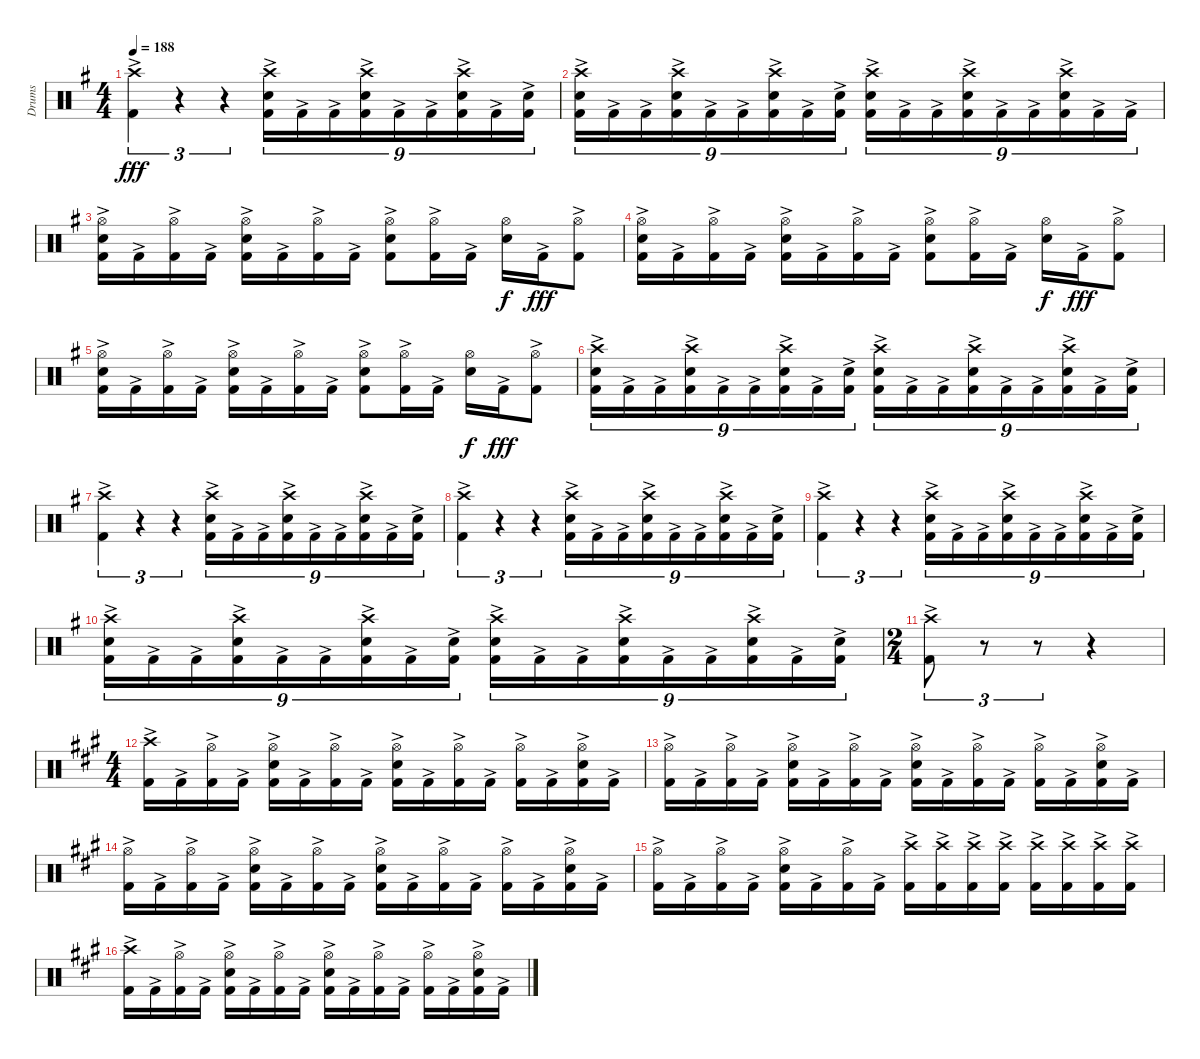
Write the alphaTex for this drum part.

\track ("Drums" "Drums") {instrument percussion}
\staff {score}
\articulation defaults
\ts (4 4)
\tempo 188
\clef neutral
\ks eminor
("Crash high (hit)" "Kick (hit) 2"{ac}).4{tu (3 2) dy fff} r.4{tu (3 2)} r.4{tu (3 2)} ("Crash high (hit)" "Snare (hit) 2" "Kick (hit) 2"{ac}).16{tu (9 8)} "Kick (hit) 2"{ac}.16{tu (9 8)} "Kick (hit) 2"{ac}.16{tu (9 8)} ("Crash high (hit)" "Snare (hit) 2" "Kick (hit) 2"{ac}).16{tu (9 8)} "Kick (hit) 2"{ac}.16{tu (9 8)} "Kick (hit) 2"{ac}.16{tu (9 8)} ("Crash high (hit)" "Snare (hit) 2" "Kick (hit) 2"{ac}).16{tu (9 8)} "Kick (hit) 2"{ac}.16{tu (9 8)} ("Snare (hit) 2" "Kick (hit) 2"{ac}).16{tu (9 8)} |
("Crash high (hit)" "Snare (hit) 2" "Kick (hit) 2"{ac}).16{tu (9 8)} "Kick (hit) 2"{ac}.16{tu (9 8)} "Kick (hit) 2"{ac}.16{tu (9 8)} ("Crash high (hit)" "Snare (hit) 2" "Kick (hit) 2"{ac}).16{tu (9 8)} "Kick (hit) 2"{ac}.16{tu (9 8)} "Kick (hit) 2"{ac}.16{tu (9 8)} ("Crash high (hit)" "Snare (hit) 2" "Kick (hit) 2"{ac}).16{tu (9 8)} "Kick (hit) 2"{ac}.16{tu (9 8)} ("Snare (hit) 2" "Kick (hit) 2"{ac}).16{tu (9 8)} ("Crash high (hit)" "Snare (hit) 2" "Kick (hit) 2"{ac}).16{tu (9 8)} "Kick (hit) 2"{ac}.16{tu (9 8)} "Kick (hit) 2"{ac}.16{tu (9 8)} ("Crash high (hit)" "Snare (hit) 2" "Kick (hit) 2"{ac}).16{tu (9 8)} "Kick (hit) 2"{ac}.16{tu (9 8)} "Kick (hit) 2"{ac}.16{tu (9 8)} ("Crash high (hit)" "Snare (hit) 2" "Kick (hit) 2"{ac}).16{tu (9 8)} "Kick (hit) 2"{ac}.16{tu (9 8)} "Kick (hit) 2"{ac}.16{tu (9 8)} |
("Hi-Hat (open)" "Snare (hit) 2" "Kick (hit) 2"{ac}).16 "Kick (hit) 2"{ac}.16 ("Hi-Hat (open)" "Kick (hit) 2"{ac}).16 "Kick (hit) 2"{ac}.16 ("Hi-Hat (open)" "Snare (hit) 2" "Kick (hit) 2"{ac}).16 "Kick (hit) 2"{ac}.16 ("Hi-Hat (open)" "Kick (hit) 2"{ac}).16 "Kick (hit) 2"{ac}.16 ("Hi-Hat (open)" "Snare (hit) 2" "Kick (hit) 2"{ac}).8 ("Hi-Hat (open)" "Kick (hit) 2"{ac}).16 "Kick (hit) 2"{ac}.16 ("Hi-Hat (open)" "Snare (hit) 2").16{dy f} "Kick (hit) 2"{ac}.16{dy fff} ("Hi-Hat (open)" "Kick (hit) 2"{ac}).8 |
("Hi-Hat (open)" "Snare (hit) 2" "Kick (hit) 2"{ac}).16 "Kick (hit) 2"{ac}.16 ("Hi-Hat (open)" "Kick (hit) 2"{ac}).16 "Kick (hit) 2"{ac}.16 ("Hi-Hat (open)" "Snare (hit) 2" "Kick (hit) 2"{ac}).16 "Kick (hit) 2"{ac}.16 ("Hi-Hat (open)" "Kick (hit) 2"{ac}).16 "Kick (hit) 2"{ac}.16 ("Hi-Hat (open)" "Snare (hit) 2" "Kick (hit) 2"{ac}).8 ("Hi-Hat (open)" "Kick (hit) 2"{ac}).16 "Kick (hit) 2"{ac}.16 ("Hi-Hat (open)" "Snare (hit) 2").16{dy f} "Kick (hit) 2"{ac}.16{dy fff} ("Hi-Hat (open)" "Kick (hit) 2"{ac}).8 |
("Hi-Hat (open)" "Snare (hit) 2" "Kick (hit) 2"{ac}).16 "Kick (hit) 2"{ac}.16 ("Hi-Hat (open)" "Kick (hit) 2"{ac}).16 "Kick (hit) 2"{ac}.16 ("Hi-Hat (open)" "Snare (hit) 2" "Kick (hit) 2"{ac}).16 "Kick (hit) 2"{ac}.16 ("Hi-Hat (open)" "Kick (hit) 2"{ac}).16 "Kick (hit) 2"{ac}.16 ("Hi-Hat (open)" "Snare (hit) 2" "Kick (hit) 2"{ac}).8 ("Hi-Hat (open)" "Kick (hit) 2"{ac}).16 "Kick (hit) 2"{ac}.16 ("Hi-Hat (open)" "Snare (hit) 2").16{dy f} "Kick (hit) 2"{ac}.16{dy fff} ("Hi-Hat (open)" "Kick (hit) 2"{ac}).8 |
("Crash high (hit)" "Snare (hit) 2" "Kick (hit) 2"{ac}).16{tu (9 8)} "Kick (hit) 2"{ac}.16{tu (9 8)} "Kick (hit) 2"{ac}.16{tu (9 8)} ("Crash high (hit)" "Snare (hit) 2" "Kick (hit) 2"{ac}).16{tu (9 8)} "Kick (hit) 2"{ac}.16{tu (9 8)} "Kick (hit) 2"{ac}.16{tu (9 8)} ("Crash high (hit)" "Snare (hit) 2" "Kick (hit) 2"{ac}).16{tu (9 8)} "Kick (hit) 2"{ac}.16{tu (9 8)} ("Snare (hit) 2" "Kick (hit) 2"{ac}).16{tu (9 8)} ("Crash high (hit)" "Snare (hit) 2" "Kick (hit) 2"{ac}).16{tu (9 8)} "Kick (hit) 2"{ac}.16{tu (9 8)} "Kick (hit) 2"{ac}.16{tu (9 8)} ("Crash high (hit)" "Snare (hit) 2" "Kick (hit) 2"{ac}).16{tu (9 8)} "Kick (hit) 2"{ac}.16{tu (9 8)} "Kick (hit) 2"{ac}.16{tu (9 8)} ("Crash high (hit)" "Snare (hit) 2" "Kick (hit) 2"{ac}).16{tu (9 8)} "Kick (hit) 2"{ac}.16{tu (9 8)} ("Snare (hit) 2" "Kick (hit) 2"{ac}).16{tu (9 8)} |
("Crash high (hit)" "Kick (hit) 2"{ac}).4{tu (3 2)} r.4{tu (3 2)} r.4{tu (3 2)} ("Crash high (hit)" "Snare (hit) 2" "Kick (hit) 2"{ac}).16{tu (9 8)} "Kick (hit) 2"{ac}.16{tu (9 8)} "Kick (hit) 2"{ac}.16{tu (9 8)} ("Crash high (hit)" "Snare (hit) 2" "Kick (hit) 2"{ac}).16{tu (9 8)} "Kick (hit) 2"{ac}.16{tu (9 8)} "Kick (hit) 2"{ac}.16{tu (9 8)} ("Crash high (hit)" "Snare (hit) 2" "Kick (hit) 2"{ac}).16{tu (9 8)} "Kick (hit) 2"{ac}.16{tu (9 8)} ("Snare (hit) 2" "Kick (hit) 2"{ac}).16{tu (9 8)} |
("Crash high (hit)" "Kick (hit) 2"{ac}).4{tu (3 2)} r.4{tu (3 2)} r.4{tu (3 2)} ("Crash high (hit)" "Snare (hit) 2" "Kick (hit) 2"{ac}).16{tu (9 8)} "Kick (hit) 2"{ac}.16{tu (9 8)} "Kick (hit) 2"{ac}.16{tu (9 8)} ("Crash high (hit)" "Snare (hit) 2" "Kick (hit) 2"{ac}).16{tu (9 8)} "Kick (hit) 2"{ac}.16{tu (9 8)} "Kick (hit) 2"{ac}.16{tu (9 8)} ("Crash high (hit)" "Snare (hit) 2" "Kick (hit) 2"{ac}).16{tu (9 8)} "Kick (hit) 2"{ac}.16{tu (9 8)} ("Snare (hit) 2" "Kick (hit) 2"{ac}).16{tu (9 8)} |
("Crash high (hit)" "Kick (hit) 2"{ac}).4{tu (3 2)} r.4{tu (3 2)} r.4{tu (3 2)} ("Crash high (hit)" "Snare (hit) 2" "Kick (hit) 2"{ac}).16{tu (9 8)} "Kick (hit) 2"{ac}.16{tu (9 8)} "Kick (hit) 2"{ac}.16{tu (9 8)} ("Crash high (hit)" "Snare (hit) 2" "Kick (hit) 2"{ac}).16{tu (9 8)} "Kick (hit) 2"{ac}.16{tu (9 8)} "Kick (hit) 2"{ac}.16{tu (9 8)} ("Crash high (hit)" "Snare (hit) 2" "Kick (hit) 2"{ac}).16{tu (9 8)} "Kick (hit) 2"{ac}.16{tu (9 8)} ("Snare (hit) 2" "Kick (hit) 2"{ac}).16{tu (9 8)} |
("Crash high (hit)" "Snare (hit) 2" "Kick (hit) 2"{ac}).16{tu (9 8)} "Kick (hit) 2"{ac}.16{tu (9 8)} "Kick (hit) 2"{ac}.16{tu (9 8)} ("Crash high (hit)" "Snare (hit) 2" "Kick (hit) 2"{ac}).16{tu (9 8)} "Kick (hit) 2"{ac}.16{tu (9 8)} "Kick (hit) 2"{ac}.16{tu (9 8)} ("Crash high (hit)" "Snare (hit) 2" "Kick (hit) 2"{ac}).16{tu (9 8)} "Kick (hit) 2"{ac}.16{tu (9 8)} ("Snare (hit) 2" "Kick (hit) 2"{ac}).16{tu (9 8)} ("Crash high (hit)" "Snare (hit) 2" "Kick (hit) 2"{ac}).16{tu (9 8)} "Kick (hit) 2"{ac}.16{tu (9 8)} "Kick (hit) 2"{ac}.16{tu (9 8)} ("Crash high (hit)" "Snare (hit) 2" "Kick (hit) 2"{ac}).16{tu (9 8)} "Kick (hit) 2"{ac}.16{tu (9 8)} "Kick (hit) 2"{ac}.16{tu (9 8)} ("Crash high (hit)" "Snare (hit) 2" "Kick (hit) 2"{ac}).16{tu (9 8)} "Kick (hit) 2"{ac}.16{tu (9 8)} ("Snare (hit) 2" "Kick (hit) 2"{ac}).16{tu (9 8)} |
\ts (2 4)
("Crash high (hit)" "Kick (hit) 2"{ac}).8{tu (3 2)} r.8{tu (3 2)} r.8{tu (3 2)} r.4 |
\ts (4 4)
\ks f#minor
("Crash high (hit)" "Kick (hit) 2"{ac}).16 "Kick (hit) 2"{ac}.16 ("Hi-Hat (open)" "Kick (hit) 2"{ac}).16 "Kick (hit) 2"{ac}.16 ("Hi-Hat (open)" "Snare (hit) 2" "Kick (hit) 2"{ac}).16 "Kick (hit) 2"{ac}.16 ("Hi-Hat (open)" "Kick (hit) 2"{ac}).16 "Kick (hit) 2"{ac}.16 ("Hi-Hat (open)" "Snare (hit) 2" "Kick (hit) 2"{ac}).16 "Kick (hit) 2"{ac}.16 ("Hi-Hat (open)" "Kick (hit) 2"{ac}).16 "Kick (hit) 2"{ac}.16 ("Hi-Hat (open)" "Kick (hit) 2"{ac}).16 "Kick (hit) 2"{ac}.16 ("Hi-Hat (open)" "Snare (hit) 2" "Kick (hit) 2"{ac}).16 "Kick (hit) 2"{ac}.16 |
("Hi-Hat (open)" "Kick (hit) 2"{ac}).16 "Kick (hit) 2"{ac}.16 ("Hi-Hat (open)" "Kick (hit) 2"{ac}).16 "Kick (hit) 2"{ac}.16 ("Hi-Hat (open)" "Snare (hit) 2" "Kick (hit) 2"{ac}).16 "Kick (hit) 2"{ac}.16 ("Hi-Hat (open)" "Kick (hit) 2"{ac}).16 "Kick (hit) 2"{ac}.16 ("Hi-Hat (open)" "Snare (hit) 2" "Kick (hit) 2"{ac}).16 "Kick (hit) 2"{ac}.16 ("Hi-Hat (open)" "Kick (hit) 2"{ac}).16 "Kick (hit) 2"{ac}.16 ("Hi-Hat (open)" "Kick (hit) 2"{ac}).16 "Kick (hit) 2"{ac}.16 ("Hi-Hat (open)" "Snare (hit) 2" "Kick (hit) 2"{ac}).16 "Kick (hit) 2"{ac}.16 |
("Hi-Hat (open)" "Kick (hit) 2"{ac}).16 "Kick (hit) 2"{ac}.16 ("Hi-Hat (open)" "Kick (hit) 2"{ac}).16 "Kick (hit) 2"{ac}.16 ("Hi-Hat (open)" "Snare (hit) 2" "Kick (hit) 2"{ac}).16 "Kick (hit) 2"{ac}.16 ("Hi-Hat (open)" "Kick (hit) 2"{ac}).16 "Kick (hit) 2"{ac}.16 ("Hi-Hat (open)" "Snare (hit) 2" "Kick (hit) 2"{ac}).16 "Kick (hit) 2"{ac}.16 ("Hi-Hat (open)" "Kick (hit) 2"{ac}).16 "Kick (hit) 2"{ac}.16 ("Hi-Hat (open)" "Kick (hit) 2"{ac}).16 "Kick (hit) 2"{ac}.16 ("Hi-Hat (open)" "Snare (hit) 2" "Kick (hit) 2"{ac}).16 "Kick (hit) 2"{ac}.16 |
("Hi-Hat (open)" "Kick (hit) 2"{ac}).16 "Kick (hit) 2"{ac}.16 ("Hi-Hat (open)" "Kick (hit) 2"{ac}).16 "Kick (hit) 2"{ac}.16 ("Hi-Hat (open)" "Snare (hit) 2" "Kick (hit) 2"{ac}).16 "Kick (hit) 2"{ac}.16 ("Hi-Hat (open)" "Kick (hit) 2"{ac}).16 "Kick (hit) 2"{ac}.16 ("Crash high (hit)" "Kick (hit) 2"{ac}).16 ("Crash high (hit)" "Kick (hit) 2"{ac}).16 ("Crash high (hit)" "Kick (hit) 2"{ac}).16 ("Crash high (hit)" "Kick (hit) 2"{ac}).16 ("Crash high (hit)" "Kick (hit) 2"{ac}).16 ("Crash high (hit)" "Kick (hit) 2"{ac}).16 ("Crash high (hit)" "Kick (hit) 2"{ac}).16 ("Crash high (hit)" "Kick (hit) 2"{ac}).16 |
("Crash high (hit)" "Kick (hit) 2"{ac}).16 "Kick (hit) 2"{ac}.16 ("Hi-Hat (open)" "Kick (hit) 2"{ac}).16 "Kick (hit) 2"{ac}.16 ("Hi-Hat (open)" "Snare (hit) 2" "Kick (hit) 2"{ac}).16 "Kick (hit) 2"{ac}.16 ("Hi-Hat (open)" "Kick (hit) 2"{ac}).16 "Kick (hit) 2"{ac}.16 ("Hi-Hat (open)" "Snare (hit) 2" "Kick (hit) 2"{ac}).16 "Kick (hit) 2"{ac}.16 ("Hi-Hat (open)" "Kick (hit) 2"{ac}).16 "Kick (hit) 2"{ac}.16 ("Hi-Hat (open)" "Kick (hit) 2"{ac}).16 "Kick (hit) 2"{ac}.16 ("Hi-Hat (open)" "Snare (hit) 2" "Kick (hit) 2"{ac}).16 "Kick (hit) 2"{ac}.16
